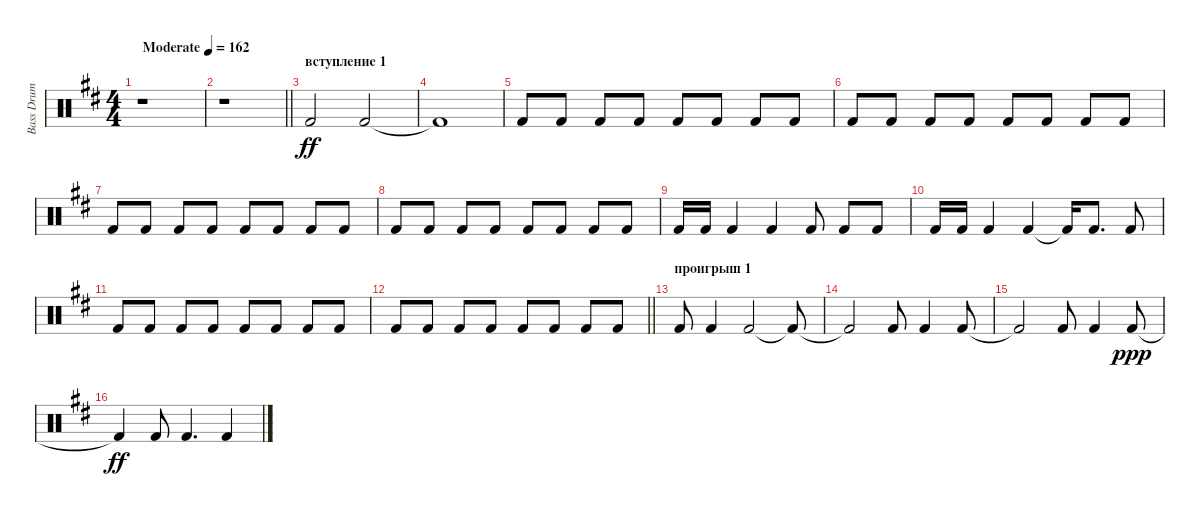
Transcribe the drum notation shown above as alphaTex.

\track ("Bass Drum" "Bass Drum") {instrument percussion}
\staff {score}
\articulation defaults
\ts (4 4)
\tempo (162 "Moderate")
\clef neutral
\ks bminor
r.1{dy ff} |
\barLineRight lightlight
r.1 |
\section ("" "вступление 1")
"Kick (hit) 2".2 "Kick (hit) 2".2 |
"Kick (hit) 2"{t}.1 |
"Kick (hit) 2".8 "Kick (hit) 2".8 "Kick (hit) 2".8 "Kick (hit) 2".8 "Kick (hit) 2".8 "Kick (hit) 2".8 "Kick (hit) 2".8 "Kick (hit) 2".8 |
"Kick (hit) 2".8 "Kick (hit) 2".8 "Kick (hit) 2".8 "Kick (hit) 2".8 "Kick (hit) 2".8 "Kick (hit) 2".8 "Kick (hit) 2".8 "Kick (hit) 2".8 |
"Kick (hit) 2".8 "Kick (hit) 2".8 "Kick (hit) 2".8 "Kick (hit) 2".8 "Kick (hit) 2".8 "Kick (hit) 2".8 "Kick (hit) 2".8 "Kick (hit) 2".8 |
"Kick (hit) 2".8 "Kick (hit) 2".8 "Kick (hit) 2".8 "Kick (hit) 2".8 "Kick (hit) 2".8 "Kick (hit) 2".8 "Kick (hit) 2".8 "Kick (hit) 2".8 |
"Kick (hit) 2".16 "Kick (hit) 2".16 "Kick (hit) 2".4 "Kick (hit) 2".4 "Kick (hit) 2".8 "Kick (hit) 2".8 "Kick (hit) 2".8 |
"Kick (hit) 2".16 "Kick (hit) 2".16 "Kick (hit) 2".4 "Kick (hit) 2".4 "Kick (hit) 2"{t}.16 "Kick (hit) 2".8{d} "Kick (hit) 2".8 |
"Kick (hit) 2".8 "Kick (hit) 2".8 "Kick (hit) 2".8 "Kick (hit) 2".8 "Kick (hit) 2".8 "Kick (hit) 2".8 "Kick (hit) 2".8 "Kick (hit) 2".8 |
\barLineRight lightlight "Kick (hit) 2".8 "Kick (hit) 2".8 "Kick (hit) 2".8 "Kick (hit) 2".8 "Kick (hit) 2".8 "Kick (hit) 2".8 "Kick (hit) 2".8 "Kick (hit) 2".8
|
\section ("" "проигрыш 1")
"Kick (hit) 2".8 "Kick (hit) 2".4 "Kick (hit) 2".2 "Kick (hit) 2"{t}.8 |
"Kick (hit) 2"{t}.2 "Kick (hit) 2".8 "Kick (hit) 2".4 "Kick (hit) 2".8 |
"Kick (hit) 2"{t}.2 "Kick (hit) 2".8 "Kick (hit) 2".4 "Kick (hit) 2".8{dy ppp} |
"Kick (hit) 2"{t}.4{dy ff} "Kick (hit) 2".8 "Kick (hit) 2".4{d} "Kick (hit) 2".4
